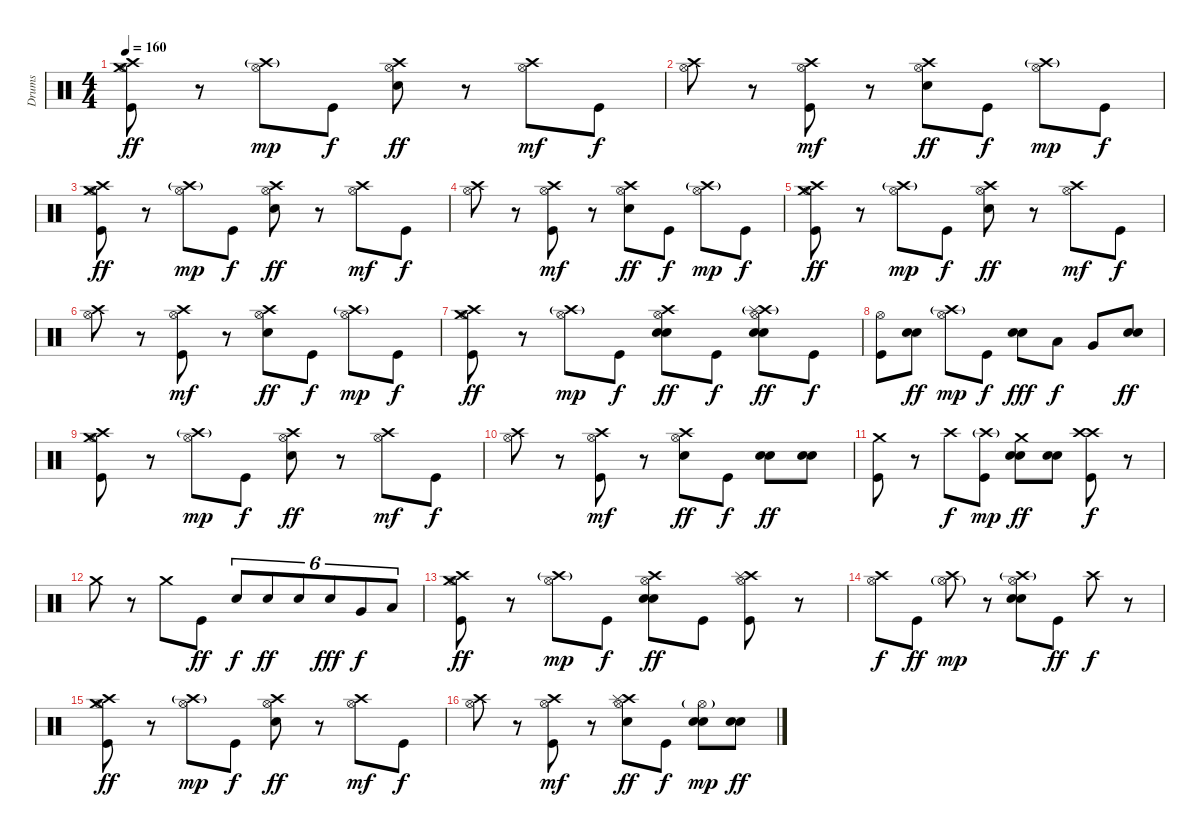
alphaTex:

\track ("Drums" "Drums") {instrument percussion}
\staff {score}
\articulation defaults
\ts (4 4)
\tempo 160
\clef neutral
\ks c
("Kick (hit)" "Hi-Hat (open)" "Crash high (hit)" "Crash medium (hit)").8{dy ff} r.8 ("Hi-Hat (open)" "Crash high (hit)"{g}).8{dy mp} "Kick (hit)".8{dy f} ("Electric Snare (hit)" "Hi-Hat (open)" "Crash high (hit)").8{dy ff} r.8 ("Hi-Hat (open)" "Crash high (hit)").8{dy mf} "Kick (hit)".8{dy f} |
("Hi-Hat (open)" "Crash high (hit)").8 r.8 ("Kick (hit)" "Hi-Hat (open)" "Crash high (hit)").8{dy mf} r.8 ("Electric Snare (hit)" "Hi-Hat (open)" "Crash high (hit)").8{dy ff} "Kick (hit)".8{dy f} ("Hi-Hat (open)" "Crash high (hit)"{g}).8{dy mp} "Kick (hit)".8{dy f} |
("Kick (hit)" "Hi-Hat (open)" "Crash high (hit)" "Crash medium (hit)").8{dy ff} r.8 ("Hi-Hat (open)" "Crash high (hit)"{g}).8{dy mp} "Kick (hit)".8{dy f} ("Electric Snare (hit)" "Hi-Hat (open)" "Crash high (hit)").8{dy ff} r.8 ("Hi-Hat (open)" "Crash high (hit)").8{dy mf} "Kick (hit)".8{dy f} |
("Hi-Hat (open)" "Crash high (hit)").8 r.8 ("Kick (hit)" "Hi-Hat (open)" "Crash high (hit)").8{dy mf} r.8 ("Electric Snare (hit)" "Hi-Hat (open)" "Crash high (hit)").8{dy ff} "Kick (hit)".8{dy f} ("Hi-Hat (open)" "Crash high (hit)"{g}).8{dy mp} "Kick (hit)".8{dy f} |
("Kick (hit)" "Hi-Hat (open)" "Crash high (hit)" "Crash medium (hit)").8{dy ff} r.8 ("Hi-Hat (open)" "Crash high (hit)"{g}).8{dy mp} "Kick (hit)".8{dy f} ("Electric Snare (hit)" "Hi-Hat (open)" "Crash high (hit)").8{dy ff} r.8 ("Hi-Hat (open)" "Crash high (hit)").8{dy mf} "Kick (hit)".8{dy f} |
("Hi-Hat (open)" "Crash high (hit)").8 r.8 ("Kick (hit)" "Hi-Hat (open)" "Crash high (hit)").8{dy mf} r.8 ("Electric Snare (hit)" "Hi-Hat (open)" "Crash high (hit)").8{dy ff} "Kick (hit)".8{dy f} ("Hi-Hat (open)" "Crash high (hit)"{g}).8{dy mp} "Kick (hit)".8{dy f} |
("Kick (hit)" "Hi-Hat (open)" "Crash high (hit)" "Crash medium (hit)").8{dy ff} r.8 ("Hi-Hat (open)" "Crash high (hit)"{g}).8{dy mp} "Kick (hit)".8{dy f} ("Electric Snare (hit)" "Electric Snare (hit)" "Hi-Hat (open)" "Crash high (hit)").8{dy ff} "Kick (hit)".8{dy f} ("Electric Snare (hit)" "Electric Snare (hit)" "Hi-Hat (open)" "Crash high (hit)"{g} "Splash (hit)").8{dy ff} "Kick (hit)".8{dy f} |
("Kick (hit)" "Hi-Hat (open)").8 ("Electric Snare (hit)" "Electric Snare (hit)").8{dy ff} ("Hi-Hat (open)" "Crash high (hit)"{g}).8{dy mp} "Kick (hit)".8{dy f} ("Electric Snare (hit)" "Electric Snare (hit)").8{dy fff} "Low Tom (hit)".8{dy f} "Very Low Tom (hit)".8 ("Electric Snare (hit)" "Electric Snare (hit)").8{dy ff} |
("Kick (hit)" "Hi-Hat (open)" "Crash high (hit)" "Crash medium (hit)").8 r.8 ("Hi-Hat (open)" "Crash high (hit)"{g}).8{dy mp} "Kick (hit)".8{dy f} ("Electric Snare (hit)" "Hi-Hat (open)" "Crash high (hit)").8{dy ff} r.8 ("Hi-Hat (open)" "Crash high (hit)").8{dy mf} "Kick (hit)".8{dy f} |
("Hi-Hat (open)" "Crash high (hit)").8 r.8 ("Kick (hit)" "Hi-Hat (open)" "Crash high (hit)").8{dy mf} r.8 ("Electric Snare (hit)" "Hi-Hat (open)" "Crash high (hit)").8{dy ff} "Kick (hit)".8{dy f} ("Electric Snare (hit)" "Electric Snare (hit)").8{dy ff} ("Electric Snare (hit)" "Electric Snare (hit)").8 |
("Kick (hit)" "Crash medium (hit)").8 r.8 "Crash high (hit)".8{dy f} ("Kick (hit)" "Crash high (hit)"{g}).8{dy mp} ("Electric Snare (hit)" "Electric Snare (hit)" "Crash medium (hit)").8{dy ff} ("Electric Snare (hit)" "Electric Snare (hit)").8 ("Kick (hit)" "Crash high (hit)" "Crash high (hit)").8{dy f} r.8 |
"Crash medium (hit)".8 r.8 "Crash medium (hit)".8 "Kick (hit)".8{dy ff} "Electric Snare (hit)".8{tu (6 4) dy f} "Electric Snare (hit)".8{tu (6 4) dy ff} "Electric Snare (hit)".8{tu (6 4)} "Electric Snare (hit)".8{tu (6 4) dy fff} "Very Low Tom (hit)".8{tu (6 4) dy f} "Low Floor Tom (hit)".8{tu (6 4)} |
("Kick (hit)" "Hi-Hat (open)" "Crash high (hit)" "Crash medium (hit)").8{dy ff} r.8 ("Hi-Hat (open)" "Crash high (hit)"{g}).8{dy mp} "Kick (hit)".8{dy f} ("Electric Snare (hit)" "Electric Snare (hit)" "Hi-Hat (open)" "Crash high (hit)").8{dy ff} "Kick (hit)".8 ("Kick (hit)" "Hi-Hat (open)" "Crash high (hit)" "Splash (hit)").8 r.8 |
("Hi-Hat (open)" "Crash high (hit)").8{dy f} "Kick (hit)".8{dy ff} ("Hi-Hat (open)"{g} "Crash high (hit)").8{dy mp} r.8 ("Electric Snare (hit)" "Electric Snare (hit)" "Hi-Hat (open)" "Crash high (hit)"{g}).8 "Kick (hit)".8{dy ff} "Crash high (hit)".8{dy f} r.8 |
("Kick (hit)" "Hi-Hat (open)" "Crash high (hit)" "Crash medium (hit)").8{dy ff} r.8 ("Hi-Hat (open)" "Crash high (hit)"{g}).8{dy mp} "Kick (hit)".8{dy f} ("Electric Snare (hit)" "Hi-Hat (open)" "Crash high (hit)").8{dy ff} r.8 ("Hi-Hat (open)" "Crash high (hit)").8{dy mf} "Kick (hit)".8{dy f} |
("Hi-Hat (open)" "Crash high (hit)").8 r.8 ("Kick (hit)" "Hi-Hat (open)" "Crash high (hit)").8{dy mf} r.8 ("Electric Snare (hit)" "Hi-Hat (open)" "Crash high (hit)" "Splash (hit)").8{dy ff} "Kick (hit)".8{dy f} ("Electric Snare (hit)" "Electric Snare (hit)" "Hi-Hat (open)"{g}).8{dy mp} ("Electric Snare (hit)" "Electric Snare (hit)").8{dy ff}
